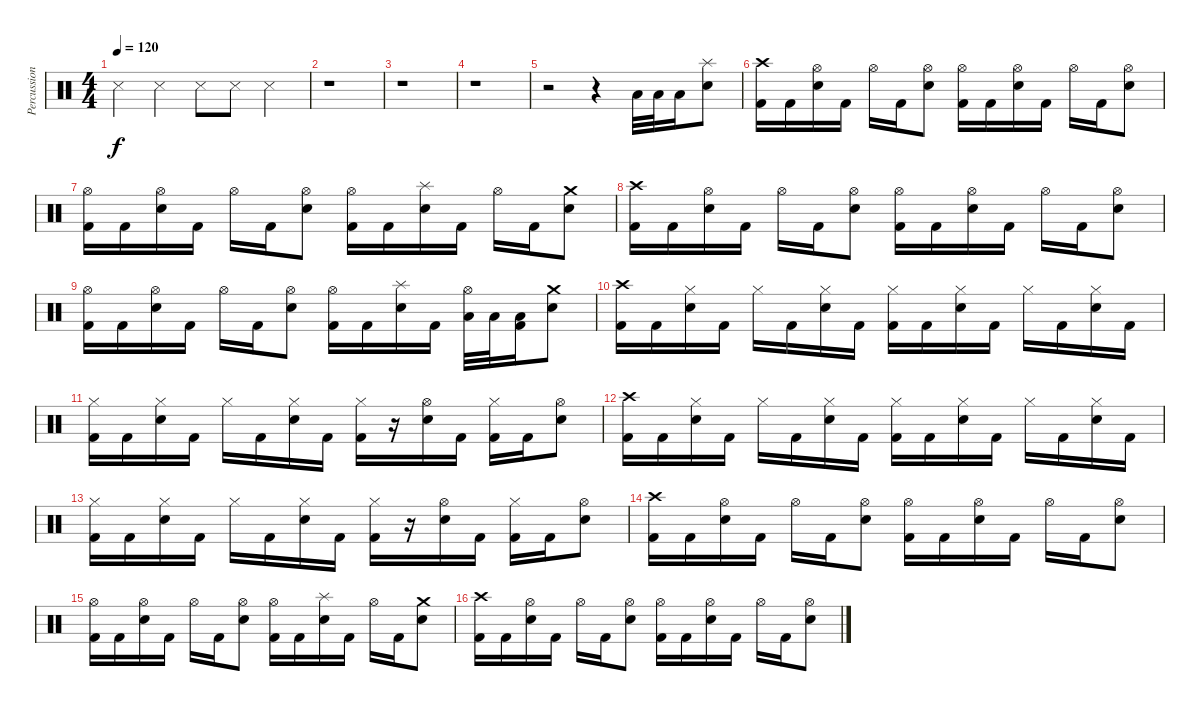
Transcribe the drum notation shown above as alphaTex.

\track ("Percussions" "Percussion") {instrument percussion}
\staff {score}
\articulation defaults
\ts (4 4)
\tempo 120
\clef neutral
\ks c "Metronome (hit)".4{dy f} "Metronome (hit)".4 "Metronome (hit)".8 "Metronome (hit)".8 "Metronome (hit)".4
|
r.1 |
r.1 |
r.1 |
r.2 r.4 "Low Tom (hit)".32 "Low Tom (hit)".32 "Low Tom (hit)".16 ("Electric Snare (hit)" "Splash (hit)").8 |
("Kick (hit) 2" "Crash high (hit)").16 "Kick (hit) 2".16 ("Electric Snare (hit)" "Hi-Hat (open)").16 "Kick (hit) 2".16 "Hi-Hat (open)".16 "Kick (hit) 2".16 ("Electric Snare (hit)" "Hi-Hat (open)").8 ("Kick (hit) 2" "Hi-Hat (open)").16 "Kick (hit) 2".16 ("Electric Snare (hit)" "Hi-Hat (open)").16 "Kick (hit) 2".16 "Hi-Hat (open)".16 "Kick (hit) 2".16 ("Electric Snare (hit)" "Hi-Hat (open)").8 |
("Kick (hit) 2" "Hi-Hat (open)").16 "Kick (hit) 2".16 ("Electric Snare (hit)" "Hi-Hat (open)").16 "Kick (hit) 2".16 "Hi-Hat (open)".16 "Kick (hit) 2".16 ("Electric Snare (hit)" "Hi-Hat (open)").8 ("Kick (hit) 2" "Hi-Hat (open)").16 "Kick (hit) 2".16 ("Electric Snare (hit)" "Splash (hit)").16 "Kick (hit) 2".16 "Hi-Hat (open)".16 "Kick (hit) 2".16 ("Electric Snare (hit)" "Crash medium (hit)").8 |
("Kick (hit) 2" "Crash high (hit)").16 "Kick (hit) 2".16 ("Electric Snare (hit)" "Hi-Hat (open)").16 "Kick (hit) 2".16 "Hi-Hat (open)".16 "Kick (hit) 2".16 ("Electric Snare (hit)" "Hi-Hat (open)").8 ("Kick (hit) 2" "Hi-Hat (open)").16 "Kick (hit) 2".16 ("Electric Snare (hit)" "Hi-Hat (open)").16 "Kick (hit) 2".16 "Hi-Hat (open)".16 "Kick (hit) 2".16 ("Electric Snare (hit)" "Hi-Hat (open)").8 |
("Kick (hit) 2" "Hi-Hat (open)").16 "Kick (hit) 2".16 ("Electric Snare (hit)" "Hi-Hat (open)").16 "Kick (hit) 2".16 "Hi-Hat (open)".16 "Kick (hit) 2".16 ("Electric Snare (hit)" "Hi-Hat (open)").8 ("Kick (hit) 2" "Hi-Hat (open)").16 "Kick (hit) 2".16 ("Electric Snare (hit)" "Splash (hit)").16 "Kick (hit) 2".16 ("Hi-Hat (open)" "Low Tom (hit)").32 "Low Tom (hit)".32 ("Kick (hit) 2" "Low Tom (hit)").16 ("Electric Snare (hit)" "Crash medium (hit)").8 |
("Kick (hit) 2" "Crash high (hit)").16 "Kick (hit) 2".16 ("Electric Snare (hit)" "Hi-Hat (closed)").16 "Kick (hit) 2".16 "Hi-Hat (closed)".16 "Kick (hit) 2".16 ("Electric Snare (hit)" "Hi-Hat (closed)").16 "Kick (hit) 2".16 ("Hi-Hat (closed)" "Kick (hit) 2").16 "Kick (hit) 2".16 ("Electric Snare (hit)" "Hi-Hat (closed)").16 "Kick (hit) 2".16 "Hi-Hat (closed)".16 "Kick (hit) 2".16 ("Electric Snare (hit)" "Hi-Hat (closed)").16 "Kick (hit) 2".16 |
("Kick (hit) 2" "Hi-Hat (closed)").16 "Kick (hit) 2".16 ("Electric Snare (hit)" "Hi-Hat (closed)").16 "Kick (hit) 2".16 "Hi-Hat (closed)".16 "Kick (hit) 2".16 ("Electric Snare (hit)" "Hi-Hat (closed)").16 "Kick (hit) 2".16 ("Hi-Hat (closed)" "Kick (hit) 2").16 r.16 ("Electric Snare (hit)" "Hi-Hat (open)").16 "Kick (hit) 2".16 ("Kick (hit) 2" "Hi-Hat (closed)").16 "Kick (hit) 2".16 ("Electric Snare (hit)" "Hi-Hat (open)").8 |
("Kick (hit) 2" "Crash high (hit)").16 "Kick (hit) 2".16 ("Electric Snare (hit)" "Hi-Hat (closed)").16 "Kick (hit) 2".16 "Hi-Hat (closed)".16 "Kick (hit) 2".16 ("Electric Snare (hit)" "Hi-Hat (closed)").16 "Kick (hit) 2".16 ("Hi-Hat (closed)" "Kick (hit) 2").16 "Kick (hit) 2".16 ("Electric Snare (hit)" "Hi-Hat (closed)").16 "Kick (hit) 2".16 "Hi-Hat (closed)".16 "Kick (hit) 2".16 ("Electric Snare (hit)" "Hi-Hat (closed)").16 "Kick (hit) 2".16 |
("Kick (hit) 2" "Hi-Hat (closed)").16 "Kick (hit) 2".16 ("Electric Snare (hit)" "Hi-Hat (closed)").16 "Kick (hit) 2".16 "Hi-Hat (closed)".16 "Kick (hit) 2".16 ("Electric Snare (hit)" "Hi-Hat (closed)").16 "Kick (hit) 2".16 ("Hi-Hat (closed)" "Kick (hit) 2").16 r.16 ("Electric Snare (hit)" "Hi-Hat (open)").16 "Kick (hit) 2".16 ("Kick (hit) 2" "Hi-Hat (closed)").16 "Kick (hit) 2".16 ("Electric Snare (hit)" "Hi-Hat (open)").8 |
("Kick (hit) 2" "Crash high (hit)").16 "Kick (hit) 2".16 ("Electric Snare (hit)" "Hi-Hat (open)").16 "Kick (hit) 2".16 "Hi-Hat (open)".16 "Kick (hit) 2".16 ("Electric Snare (hit)" "Hi-Hat (open)").8 ("Kick (hit) 2" "Hi-Hat (open)").16 "Kick (hit) 2".16 ("Electric Snare (hit)" "Hi-Hat (open)").16 "Kick (hit) 2".16 "Hi-Hat (open)".16 "Kick (hit) 2".16 ("Electric Snare (hit)" "Hi-Hat (open)").8 |
("Kick (hit) 2" "Hi-Hat (open)").16 "Kick (hit) 2".16 ("Electric Snare (hit)" "Hi-Hat (open)").16 "Kick (hit) 2".16 "Hi-Hat (open)".16 "Kick (hit) 2".16 ("Electric Snare (hit)" "Hi-Hat (open)").8 ("Kick (hit) 2" "Hi-Hat (open)").16 "Kick (hit) 2".16 ("Electric Snare (hit)" "Splash (hit)").16 "Kick (hit) 2".16 "Hi-Hat (open)".16 "Kick (hit) 2".16 ("Electric Snare (hit)" "Crash medium (hit)").8 |
("Kick (hit) 2" "Crash high (hit)").16 "Kick (hit) 2".16 ("Electric Snare (hit)" "Hi-Hat (open)").16 "Kick (hit) 2".16 "Hi-Hat (open)".16 "Kick (hit) 2".16 ("Electric Snare (hit)" "Hi-Hat (open)").8 ("Kick (hit) 2" "Hi-Hat (open)").16 "Kick (hit) 2".16 ("Electric Snare (hit)" "Hi-Hat (open)").16 "Kick (hit) 2".16 "Hi-Hat (open)".16 "Kick (hit) 2".16 ("Electric Snare (hit)" "Hi-Hat (open)").8
